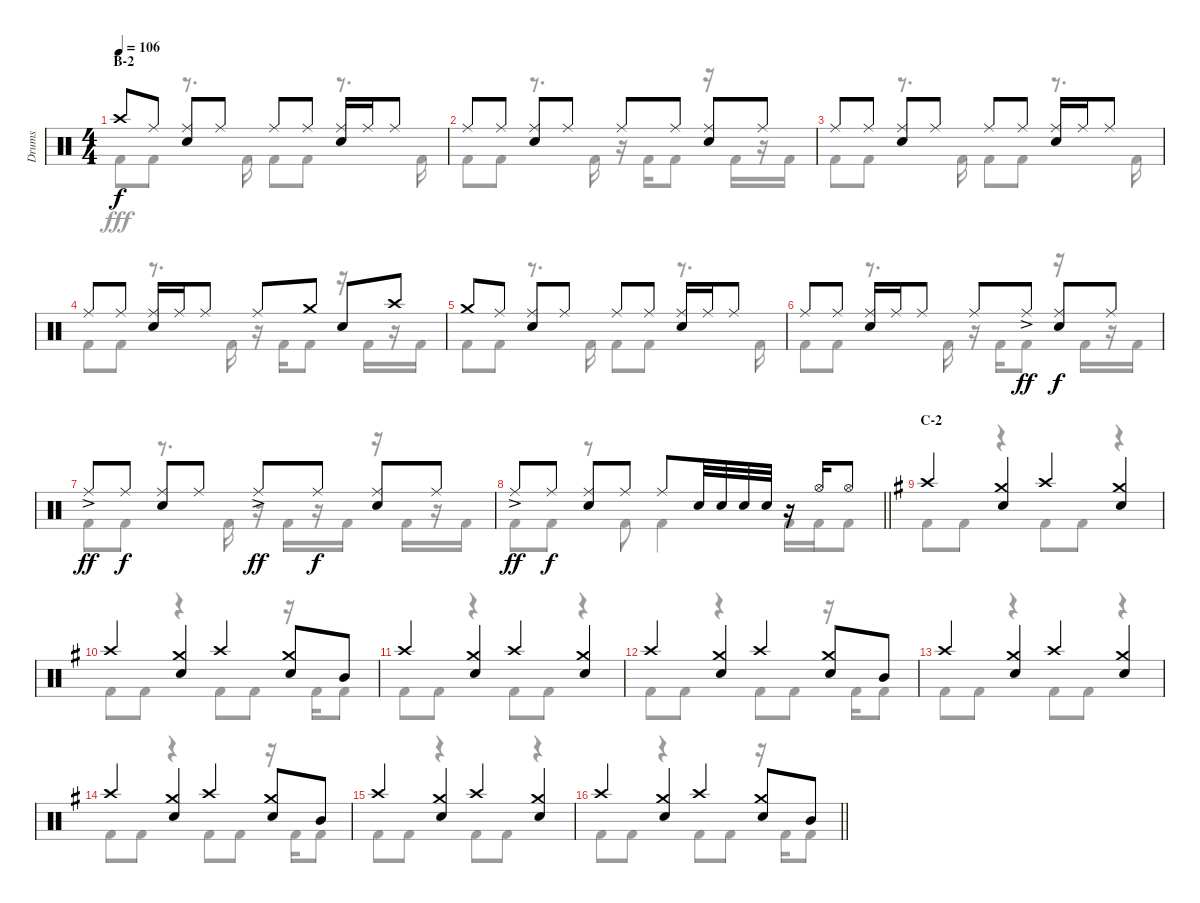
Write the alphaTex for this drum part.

\track ("Drums" "Drums") {instrument percussion}
\staff {score}
\articulation defaults
\voice
\ts (4 4)
\section ("" "B-2")
\tempo 106
\clef neutral
\ks c "Crash high (hit)".8{dy f} "Ride (middle)".8
("Ride (middle)" "Snare (hit) 2").8 "Ride (middle)".8 "Ride (middle)".8 "Ride (middle)".8 ("Ride (middle)" "Snare (hit) 2").16 "Ride (middle)".16 "Ride (middle)".8 |
"Ride (middle)".8 "Ride (middle)".8 ("Ride (middle)" "Snare (hit) 2").8 "Ride (middle)".8 "Ride (middle)".8 "Ride (middle)".8 ("Ride (middle)" "Snare (hit) 2").8 "Ride (middle)".8 |
"Ride (middle)".8 "Ride (middle)".8 ("Ride (middle)" "Snare (hit) 2").8 "Ride (middle)".8 "Ride (middle)".8 "Ride (middle)".8 ("Ride (middle)" "Snare (hit) 2").16 "Ride (middle)".16 "Ride (middle)".8 |
"Ride (middle)".8 "Ride (middle)".8 ("Ride (middle)" "Snare (hit) 2").16 "Ride (middle)".16 "Ride (middle)".8 "Ride (middle)".8 "Crash medium (hit)".8 "Snare (hit) 2".8 "Crash high (hit)".8 |
"Crash medium (hit)".8 "Ride (middle)".8 ("Ride (middle)" "Snare (hit) 2").8 "Ride (middle)".8 "Ride (middle)".8 "Ride (middle)".8 ("Ride (middle)" "Snare (hit) 2").16 "Ride (middle)".16 "Ride (middle)".8 |
"Ride (middle)".8 "Ride (middle)".8 ("Ride (middle)" "Snare (hit) 2").16 "Ride (middle)".16 "Ride (middle)".8 "Ride (middle)".8 "Ride (middle)"{ac}.8{dy ff} ("Ride (middle)" "Snare (hit) 2").8{dy f} "Ride (middle)".8 |
"Ride (middle)"{ac}.8{dy ff} "Ride (middle)".8{dy f} ("Ride (middle)" "Snare (hit) 2").8 "Ride (middle)".8 "Ride (middle)"{ac}.8{dy ff} "Ride (middle)".8{dy f} ("Ride (middle)" "Snare (hit) 2").8 "Ride (middle)".8 |
\barLineRight lightlight "Ride (middle)"{ac}.8{dy ff} "Ride (middle)".8{dy f}
("Ride (middle)" "Snare (hit) 2").8 "Ride (middle)".8 "Ride (middle)".8 "Snare (hit) 2".32 "Snare (hit) 2".32 "Snare (hit) 2".32 "Snare (hit) 2".32 r.16 "Hi-Hat (open)".16 "Hi-Hat (open)".8 |
\section ("" "C-2")
\ks g "Crash high (hit)".4
("Crash medium (hit)" "Snare (hit) 2").4 "Crash high (hit)".4 ("Crash medium (hit)" "Snare (hit) 2").4 |
"Crash high (hit)".4 ("Crash medium (hit)" "Snare (hit) 2").4 "Crash high (hit)".4 ("Crash medium (hit)" "Snare (hit) 2").8 "Mid Tom (hit)".8 |
"Crash high (hit)".4 ("Crash medium (hit)" "Snare (hit) 2").4 "Crash high (hit)".4 ("Crash medium (hit)" "Snare (hit) 2").4 |
"Crash high (hit)".4 ("Crash medium (hit)" "Snare (hit) 2").4 "Crash high (hit)".4 ("Crash medium (hit)" "Snare (hit) 2").8 "Mid Tom (hit)".8 |
"Crash high (hit)".4 ("Crash medium (hit)" "Snare (hit) 2").4 "Crash high (hit)".4 ("Crash medium (hit)" "Snare (hit) 2").4 |
"Crash high (hit)".4 ("Crash medium (hit)" "Snare (hit) 2").4 "Crash high (hit)".4 ("Crash medium (hit)" "Snare (hit) 2").8 "Mid Tom (hit)".8 |
"Crash high (hit)".4 ("Crash medium (hit)" "Snare (hit) 2").4 "Crash high (hit)".4 ("Crash medium (hit)" "Snare (hit) 2").4 |
\barLineRight lightlight "Crash high (hit)".4
("Crash medium (hit)" "Snare (hit) 2").4 "Crash high (hit)".4 ("Crash medium (hit)" "Snare (hit) 2").8 "Mid Tom (hit)".8
\voice
\clef neutral
\ottava regular
\simile none
\ks c "Kick (hit) 2".8{dy fff} "Kick (hit) 2".8
r.8{d} "Kick (hit) 2".16 "Kick (hit) 2".8 "Kick (hit) 2".8 r.8{d} "Kick (hit) 2".16 |
"Kick (hit) 2".8 "Kick (hit) 2".8 r.8{d} "Kick (hit) 2".16 r.16 "Kick (hit) 2".16 "Kick (hit) 2".8 r.16 "Kick (hit) 2".16 r.16 "Kick (hit) 2".16 |
"Kick (hit) 2".8 "Kick (hit) 2".8 r.8{d} "Kick (hit) 2".16 "Kick (hit) 2".8 "Kick (hit) 2".8 r.8{d} "Kick (hit) 2".16 |
"Kick (hit) 2".8 "Kick (hit) 2".8 r.8{d} "Kick (hit) 2".16 r.16 "Kick (hit) 2".16 "Kick (hit) 2".8 r.16 "Kick (hit) 2".16 r.16 "Kick (hit) 2".16 |
"Kick (hit) 2".8 "Kick (hit) 2".8 r.8{d} "Kick (hit) 2".16 "Kick (hit) 2".8 "Kick (hit) 2".8 r.8{d} "Kick (hit) 2".16 |
"Kick (hit) 2".8 "Kick (hit) 2".8 r.8{d} "Kick (hit) 2".16 r.16 "Kick (hit) 2".16 "Kick (hit) 2".8 r.16 "Kick (hit) 2".16 r.16 "Kick (hit) 2".16 |
"Kick (hit) 2".8 "Kick (hit) 2".8 r.8{d} "Kick (hit) 2".16 r.16 "Kick (hit) 2".16 r.16 "Kick (hit) 2".16 r.16 "Kick (hit) 2".16 r.16 "Kick (hit) 2".16 |
\barLineRight lightlight "Kick (hit) 2".8 "Kick (hit) 2".8
r.8 "Kick (hit) 2".8 "Kick (hit) 2".4 "Kick (hit) 2".16 "Kick (hit) 2".16 "Kick (hit) 2".8 |
\ks g "Kick (hit) 2".8 "Kick (hit) 2".8
r.4 "Kick (hit) 2".8 "Kick (hit) 2".8 r.4 |
"Kick (hit) 2".8 "Kick (hit) 2".8 r.4 "Kick (hit) 2".8 "Kick (hit) 2".8 r.16 "Kick (hit) 2".16 "Kick (hit) 2".8 |
"Kick (hit) 2".8 "Kick (hit) 2".8 r.4 "Kick (hit) 2".8 "Kick (hit) 2".8 r.4 |
"Kick (hit) 2".8 "Kick (hit) 2".8 r.4 "Kick (hit) 2".8 "Kick (hit) 2".8 r.16 "Kick (hit) 2".16 "Kick (hit) 2".8 |
"Kick (hit) 2".8 "Kick (hit) 2".8 r.4 "Kick (hit) 2".8 "Kick (hit) 2".8 r.4 |
"Kick (hit) 2".8 "Kick (hit) 2".8 r.4 "Kick (hit) 2".8 "Kick (hit) 2".8 r.16 "Kick (hit) 2".16 "Kick (hit) 2".8 |
"Kick (hit) 2".8 "Kick (hit) 2".8 r.4 "Kick (hit) 2".8 "Kick (hit) 2".8 r.4 |
\barLineRight lightlight "Kick (hit) 2".8 "Kick (hit) 2".8
r.4 "Kick (hit) 2".8 "Kick (hit) 2".8 r.16 "Kick (hit) 2".16 "Kick (hit) 2".8
